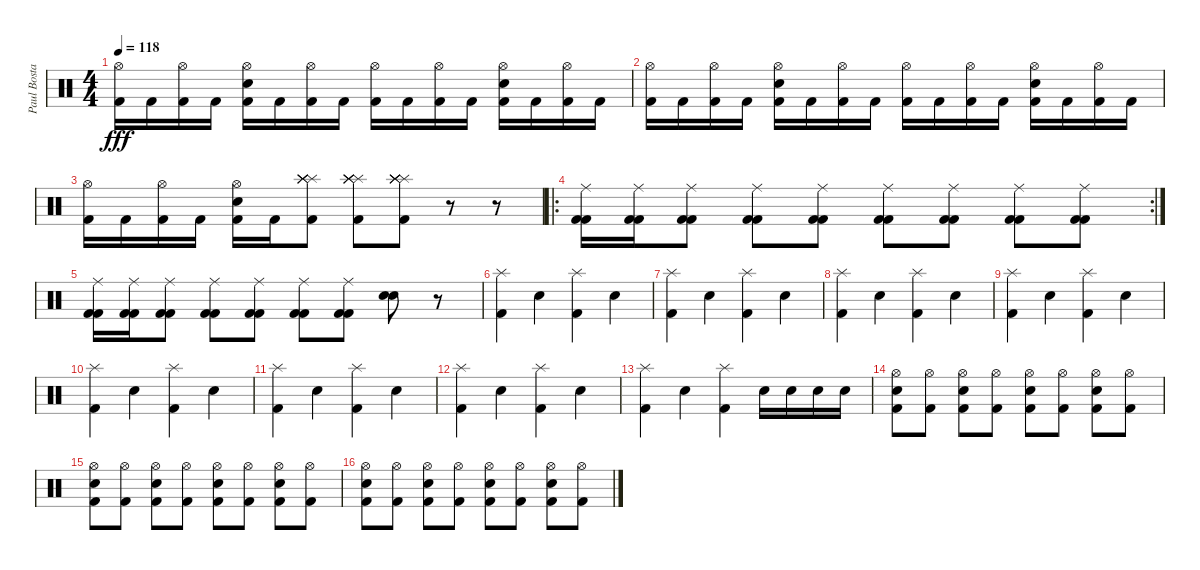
\track ("Paul Bostaph" "Paul Bosta") {instrument percussion}
\staff {score}
\articulation defaults
\ts (4 4)
\tempo 118
\clef neutral
\ks c
("Hi-Hat (open)" "Kick (hit) 2").16{dy fff} "Kick (hit) 2".16 ("Hi-Hat (open)" "Kick (hit) 2").16 "Kick (hit) 2".16 ("Hi-Hat (open)" "Snare (hit) 2" "Kick (hit) 2").16 "Kick (hit) 2".16 ("Hi-Hat (open)" "Kick (hit) 2").16 "Kick (hit) 2".16 ("Hi-Hat (open)" "Kick (hit) 2").16 "Kick (hit) 2".16 ("Hi-Hat (open)" "Kick (hit) 2").16 "Kick (hit) 2".16 ("Hi-Hat (open)" "Snare (hit) 2" "Kick (hit) 2").16 "Kick (hit) 2".16 ("Hi-Hat (open)" "Kick (hit) 2").16 "Kick (hit) 2".16 |
("Hi-Hat (open)" "Kick (hit) 2").16 "Kick (hit) 2".16 ("Hi-Hat (open)" "Kick (hit) 2").16 "Kick (hit) 2".16 ("Hi-Hat (open)" "Snare (hit) 2" "Kick (hit) 2").16 "Kick (hit) 2".16 ("Hi-Hat (open)" "Kick (hit) 2").16 "Kick (hit) 2".16 ("Hi-Hat (open)" "Kick (hit) 2").16 "Kick (hit) 2".16 ("Hi-Hat (open)" "Kick (hit) 2").16 "Kick (hit) 2".16 ("Hi-Hat (open)" "Snare (hit) 2" "Kick (hit) 2").16 "Kick (hit) 2".16 ("Hi-Hat (open)" "Kick (hit) 2").16 "Kick (hit) 2".16 |
("Hi-Hat (open)" "Kick (hit) 2").16 "Kick (hit) 2".16 ("Hi-Hat (open)" "Kick (hit) 2").16 "Kick (hit) 2".16 ("Hi-Hat (open)" "Snare (hit) 2" "Kick (hit) 2").16 "Kick (hit) 2".16 ("Splash (hit)" "Splash (hit)" "Splash (hit)" "Splash (hit)" "Splash (hit)" "Kick (hit) 2").8 ("Splash (hit)" "Splash (hit)" "Splash (hit)" "Splash (hit)" "Splash (hit)" "Kick (hit) 2").8 ("Splash (hit)" "Splash (hit)" "Splash (hit)" "Splash (hit)" "Splash (hit)" "Kick (hit) 2").8 r.8 r.8 |
\ro
\rc 2
("Ride (middle)" "Kick (hit) 2" "Kick (hit) 2").16 ("Ride (middle)" "Kick (hit) 2" "Kick (hit) 2").16 ("Ride (middle)" "Kick (hit) 2" "Kick (hit) 2").8 ("Ride (middle)" "Kick (hit) 2" "Kick (hit) 2").8 ("Ride (middle)" "Kick (hit) 2" "Kick (hit) 2").8 ("Ride (middle)" "Kick (hit) 2" "Kick (hit) 2").8 ("Ride (middle)" "Kick (hit) 2" "Kick (hit) 2").8 ("Ride (middle)" "Kick (hit) 2" "Kick (hit) 2").8 ("Ride (middle)" "Kick (hit) 2" "Kick (hit) 2").8 |
("Ride (middle)" "Kick (hit) 2" "Kick (hit) 2").16 ("Ride (middle)" "Kick (hit) 2" "Kick (hit) 2").16 ("Ride (middle)" "Kick (hit) 2" "Kick (hit) 2").8 ("Ride (middle)" "Kick (hit) 2" "Kick (hit) 2").8 ("Ride (middle)" "Kick (hit) 2" "Kick (hit) 2").8 ("Ride (middle)" "Kick (hit) 2" "Kick (hit) 2").8 ("Ride (middle)" "Kick (hit) 2" "Kick (hit) 2").8 ("Snare (hit) 2" "Snare (hit) 2").8 r.8 |
("Splash (hit)" "Kick (hit) 2").4 "Electric Snare (hit)".4 ("Splash (hit)" "Kick (hit) 2").4 "Electric Snare (hit)".4 |
("Splash (hit)" "Kick (hit) 2").4 "Electric Snare (hit)".4 ("Splash (hit)" "Kick (hit) 2").4 "Electric Snare (hit)".4 |
("Splash (hit)" "Kick (hit) 2").4 "Electric Snare (hit)".4 ("Splash (hit)" "Kick (hit) 2").4 "Electric Snare (hit)".4 |
("Splash (hit)" "Kick (hit) 2").4 "Electric Snare (hit)".4 ("Splash (hit)" "Kick (hit) 2").4 "Electric Snare (hit)".4 |
("Splash (hit)" "Kick (hit) 2").4 "Electric Snare (hit)".4 ("Splash (hit)" "Kick (hit) 2").4 "Electric Snare (hit)".4 |
("Splash (hit)" "Kick (hit) 2").4 "Electric Snare (hit)".4 ("Splash (hit)" "Kick (hit) 2").4 "Electric Snare (hit)".4 |
("Splash (hit)" "Kick (hit) 2").4 "Electric Snare (hit)".4 ("Splash (hit)" "Kick (hit) 2").4 "Electric Snare (hit)".4 |
("Splash (hit)" "Kick (hit) 2").4 "Electric Snare (hit)".4 ("Splash (hit)" "Kick (hit) 2").4 "Electric Snare (hit)".16 "Electric Snare (hit)".16 "Electric Snare (hit)".16 "Electric Snare (hit)".16 |
("Hi-Hat (open)" "Electric Snare (hit)" "Kick (hit) 2").8 ("Hi-Hat (open)" "Kick (hit) 2").8 ("Hi-Hat (open)" "Electric Snare (hit)" "Kick (hit) 2").8 ("Hi-Hat (open)" "Kick (hit) 2").8 ("Hi-Hat (open)" "Electric Snare (hit)" "Kick (hit) 2").8 ("Hi-Hat (open)" "Kick (hit) 2").8 ("Hi-Hat (open)" "Electric Snare (hit)" "Kick (hit) 2").8 ("Hi-Hat (open)" "Kick (hit) 2").8 |
("Hi-Hat (open)" "Electric Snare (hit)" "Kick (hit) 2").8 ("Hi-Hat (open)" "Kick (hit) 2").8 ("Hi-Hat (open)" "Electric Snare (hit)" "Kick (hit) 2").8 ("Hi-Hat (open)" "Kick (hit) 2").8 ("Hi-Hat (open)" "Electric Snare (hit)" "Kick (hit) 2").8 ("Hi-Hat (open)" "Kick (hit) 2").8 ("Hi-Hat (open)" "Electric Snare (hit)" "Kick (hit) 2").8 ("Hi-Hat (open)" "Kick (hit) 2").8 |
("Hi-Hat (open)" "Electric Snare (hit)" "Kick (hit) 2").8 ("Hi-Hat (open)" "Kick (hit) 2").8 ("Hi-Hat (open)" "Electric Snare (hit)" "Kick (hit) 2").8 ("Hi-Hat (open)" "Kick (hit) 2").8 ("Hi-Hat (open)" "Electric Snare (hit)" "Kick (hit) 2").8 ("Hi-Hat (open)" "Kick (hit) 2").8 ("Hi-Hat (open)" "Electric Snare (hit)" "Kick (hit) 2").8 ("Hi-Hat (open)" "Kick (hit) 2").8
